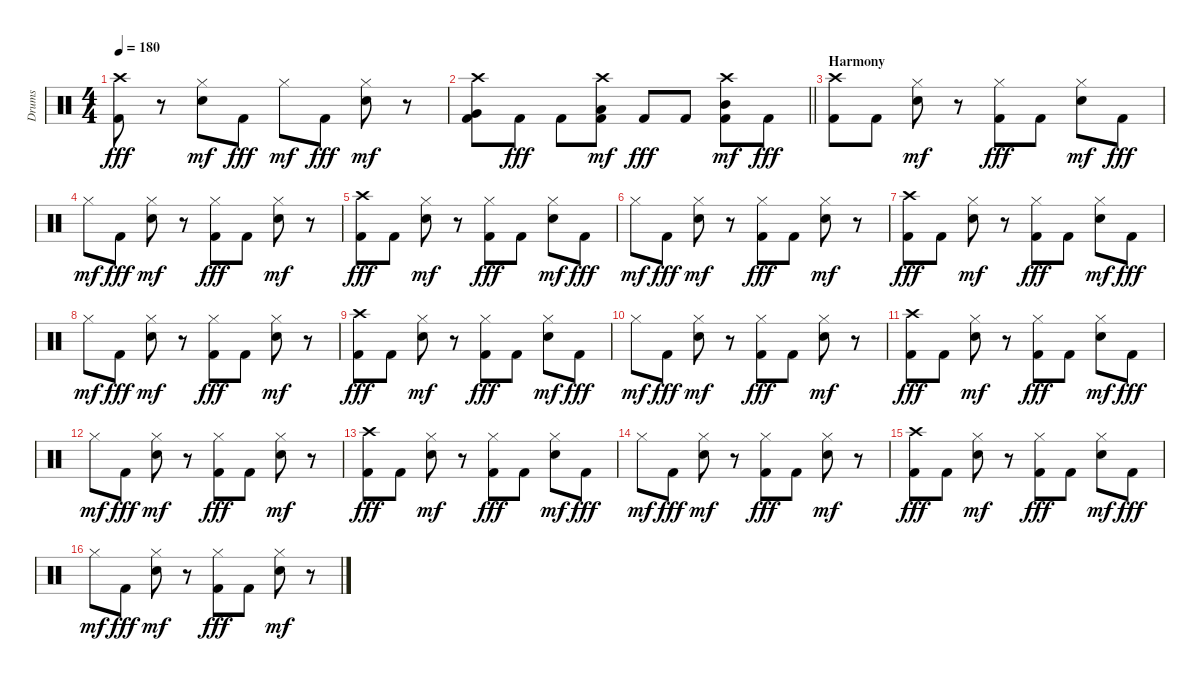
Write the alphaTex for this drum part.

\track ("Drums" "Drums") {instrument percussion}
\staff {score}
\articulation defaults
\ts (4 4)
\tempo 180
\clef neutral
\ks c
("Crash high (hit)" "Kick (hit) 2").8{dy fff} r.8 ("Hi-Hat (closed)" "Electric Snare (hit)").8{dy mf} "Kick (hit) 2".8{dy fff} "Hi-Hat (closed)".8{dy mf} "Kick (hit) 2".8{dy fff} ("Hi-Hat (closed)" "Electric Snare (hit)").8{dy mf} r.8 |
\barLineRight lightlight
("Kick (hit) 2" "Very Low Tom (hit)" "Crash high (hit)").8 "Kick (hit) 2".8{dy fff} "Kick (hit) 2".8 ("Kick (hit) 2" "Low Tom (hit)" "Crash high (hit)").8{dy mf} "Kick (hit) 2".8{dy fff} "Kick (hit) 2".8 ("Kick (hit) 2" "Mid Tom (hit)" "Crash high (hit)").8{dy mf} "Kick (hit) 2".8{dy fff} |
\section ("" "Harmony")
("Crash high (hit)" "Kick (hit) 2").8 "Kick (hit) 2".8 ("Hi-Hat (closed)" "Electric Snare (hit)").8{dy mf} r.8 ("Hi-Hat (closed)" "Kick (hit) 2").8{dy fff} "Kick (hit) 2".8 ("Hi-Hat (closed)" "Electric Snare (hit)").8{dy mf} "Kick (hit) 2".8{dy fff} |
"Hi-Hat (closed)".8{dy mf} "Kick (hit) 2".8{dy fff} ("Hi-Hat (closed)" "Electric Snare (hit)").8{dy mf} r.8 ("Hi-Hat (closed)" "Kick (hit) 2").8{dy fff} "Kick (hit) 2".8 ("Hi-Hat (closed)" "Electric Snare (hit)").8{dy mf} r.8 |
("Crash high (hit)" "Kick (hit) 2").8{dy fff} "Kick (hit) 2".8 ("Hi-Hat (closed)" "Electric Snare (hit)").8{dy mf} r.8 ("Hi-Hat (closed)" "Kick (hit) 2").8{dy fff} "Kick (hit) 2".8 ("Hi-Hat (closed)" "Electric Snare (hit)").8{dy mf} "Kick (hit) 2".8{dy fff} |
"Hi-Hat (closed)".8{dy mf} "Kick (hit) 2".8{dy fff} ("Hi-Hat (closed)" "Electric Snare (hit)").8{dy mf} r.8 ("Hi-Hat (closed)" "Kick (hit) 2").8{dy fff} "Kick (hit) 2".8 ("Hi-Hat (closed)" "Electric Snare (hit)").8{dy mf} r.8 |
("Crash high (hit)" "Kick (hit) 2").8{dy fff} "Kick (hit) 2".8 ("Hi-Hat (closed)" "Electric Snare (hit)").8{dy mf} r.8 ("Hi-Hat (closed)" "Kick (hit) 2").8{dy fff} "Kick (hit) 2".8 ("Hi-Hat (closed)" "Electric Snare (hit)").8{dy mf} "Kick (hit) 2".8{dy fff} |
"Hi-Hat (closed)".8{dy mf} "Kick (hit) 2".8{dy fff} ("Hi-Hat (closed)" "Electric Snare (hit)").8{dy mf} r.8 ("Hi-Hat (closed)" "Kick (hit) 2").8{dy fff} "Kick (hit) 2".8 ("Hi-Hat (closed)" "Electric Snare (hit)").8{dy mf} r.8 |
("Crash high (hit)" "Kick (hit) 2").8{dy fff} "Kick (hit) 2".8 ("Hi-Hat (closed)" "Electric Snare (hit)").8{dy mf} r.8 ("Hi-Hat (closed)" "Kick (hit) 2").8{dy fff} "Kick (hit) 2".8 ("Hi-Hat (closed)" "Electric Snare (hit)").8{dy mf} "Kick (hit) 2".8{dy fff} |
"Hi-Hat (closed)".8{dy mf} "Kick (hit) 2".8{dy fff} ("Hi-Hat (closed)" "Electric Snare (hit)").8{dy mf} r.8 ("Hi-Hat (closed)" "Kick (hit) 2").8{dy fff} "Kick (hit) 2".8 ("Hi-Hat (closed)" "Electric Snare (hit)").8{dy mf} r.8 |
("Crash high (hit)" "Kick (hit) 2").8{dy fff} "Kick (hit) 2".8 ("Hi-Hat (closed)" "Electric Snare (hit)").8{dy mf} r.8 ("Hi-Hat (closed)" "Kick (hit) 2").8{dy fff} "Kick (hit) 2".8 ("Hi-Hat (closed)" "Electric Snare (hit)").8{dy mf} "Kick (hit) 2".8{dy fff} |
"Hi-Hat (closed)".8{dy mf} "Kick (hit) 2".8{dy fff} ("Hi-Hat (closed)" "Electric Snare (hit)").8{dy mf} r.8 ("Hi-Hat (closed)" "Kick (hit) 2").8{dy fff} "Kick (hit) 2".8 ("Hi-Hat (closed)" "Electric Snare (hit)").8{dy mf} r.8 |
("Crash high (hit)" "Kick (hit) 2").8{dy fff} "Kick (hit) 2".8 ("Hi-Hat (closed)" "Electric Snare (hit)").8{dy mf} r.8 ("Hi-Hat (closed)" "Kick (hit) 2").8{dy fff} "Kick (hit) 2".8 ("Hi-Hat (closed)" "Electric Snare (hit)").8{dy mf} "Kick (hit) 2".8{dy fff} |
"Hi-Hat (closed)".8{dy mf} "Kick (hit) 2".8{dy fff} ("Hi-Hat (closed)" "Electric Snare (hit)").8{dy mf} r.8 ("Hi-Hat (closed)" "Kick (hit) 2").8{dy fff} "Kick (hit) 2".8 ("Hi-Hat (closed)" "Electric Snare (hit)").8{dy mf} r.8 |
("Crash high (hit)" "Kick (hit) 2").8{dy fff} "Kick (hit) 2".8 ("Hi-Hat (closed)" "Electric Snare (hit)").8{dy mf} r.8 ("Hi-Hat (closed)" "Kick (hit) 2").8{dy fff} "Kick (hit) 2".8 ("Hi-Hat (closed)" "Electric Snare (hit)").8{dy mf} "Kick (hit) 2".8{dy fff} |
"Hi-Hat (closed)".8{dy mf} "Kick (hit) 2".8{dy fff} ("Hi-Hat (closed)" "Electric Snare (hit)").8{dy mf} r.8 ("Hi-Hat (closed)" "Kick (hit) 2").8{dy fff} "Kick (hit) 2".8 ("Hi-Hat (closed)" "Electric Snare (hit)").8{dy mf} r.8
